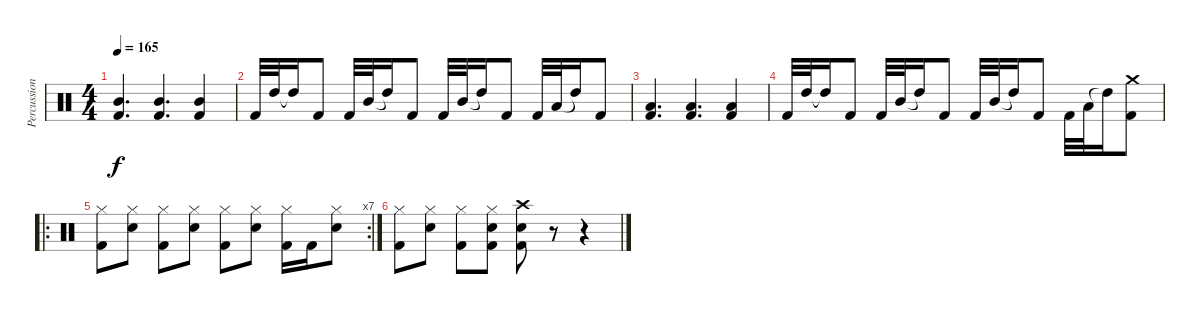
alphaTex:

\track ("Percussion" "Percussion") {instrument percussion}
\staff {score}
\articulation defaults
\ts (4 4)
\tempo 165
\clef neutral
\ks c
("Mid Tom (hit)" "Kick (hit) 2").4{d dy f} ("Mid Tom (hit)" "Kick (hit) 2").4{d} ("Mid Tom (hit)" "Kick (hit) 2").4 |
"Kick (hit) 2".32 "High Tom (hit)".32 "High Tom (hit)"{t}.16 "Kick (hit) 2".8 "Kick (hit) 2".32 "Mid Tom (hit)".32 "High Tom (hit)"{t}.16 "Kick (hit) 2".8 "Kick (hit) 2".32 "Mid Tom (hit)".32 "High Tom (hit)"{t}.16 "Kick (hit) 2".8 "Kick (hit) 2".32 "Low Tom (hit)".32 "High Tom (hit)"{t}.16 "Kick (hit) 2".8 |
("Low Tom (hit)" "Kick (hit) 2").4{d} ("Low Tom (hit)" "Kick (hit) 2").4{d} ("Low Tom (hit)" "Kick (hit) 2").4 |
"Kick (hit) 2".32 "High Tom (hit)".32 "High Tom (hit)"{t}.16 "Kick (hit) 2".8 "Kick (hit) 2".32 "Mid Tom (hit)".32 "High Tom (hit)"{t}.16 "Kick (hit) 2".8 "Kick (hit) 2".32 "Mid Tom (hit)".32 "High Tom (hit)"{t}.16 "Kick (hit) 2".8 "Kick (hit) 2".32 "Low Tom (hit)".32 "High Tom (hit)"{t}.16 ("Crash medium (hit)" "Kick (hit) 2").8 |
\ro
\rc 7
("Hi-Hat (closed)" "Kick (hit) 2").8 ("Hi-Hat (closed)" "Electric Snare (hit)").8 ("Hi-Hat (closed)" "Kick (hit) 2").8 ("Hi-Hat (closed)" "Electric Snare (hit)").8 ("Hi-Hat (closed)" "Kick (hit) 2").8 ("Hi-Hat (closed)" "Electric Snare (hit)").8 ("Hi-Hat (closed)" "Kick (hit) 2").16 "Kick (hit) 2".16 ("Hi-Hat (closed)" "Electric Snare (hit)").8 |
("Hi-Hat (closed)" "Kick (hit) 2").8 ("Hi-Hat (closed)" "Electric Snare (hit)").8 ("Hi-Hat (closed)" "Kick (hit) 2").8 ("Hi-Hat (closed)" "Electric Snare (hit)" "Kick (hit) 2").8 ("Crash high (hit)" "Electric Snare (hit)" "Kick (hit) 2").8 r.8 r.4
